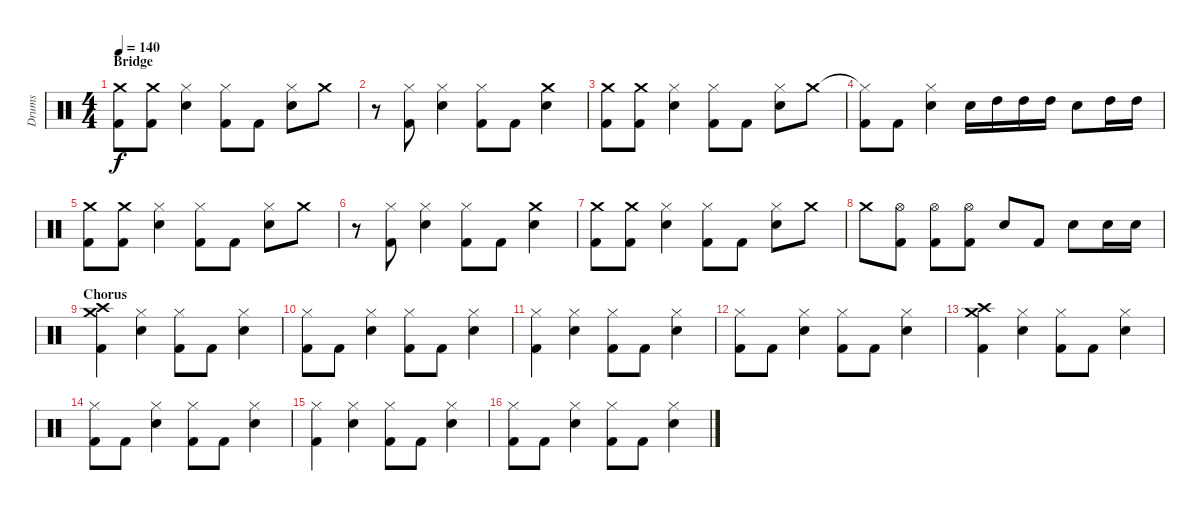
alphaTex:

\track ("Drums" "Drums") {instrument percussion}
\staff {score}
\articulation defaults
\ts (4 4)
\section ("" "Bridge")
\tempo 140
\clef neutral
\ks c
("Crash medium (hit)" "Kick (hit) 2").8{dy f} ("Crash medium (hit)" "Kick (hit) 2").8 ("Hi-Hat (closed)" "Snare (hit) 2").4 ("Hi-Hat (closed)" "Kick (hit) 2").8 "Kick (hit) 2".8 ("Hi-Hat (closed)" "Snare (hit) 2").8 "Crash medium (hit)".8 |
r.8 ("Hi-Hat (closed)" "Kick (hit) 2").8 ("Hi-Hat (closed)" "Snare (hit) 2").4 ("Hi-Hat (closed)" "Kick (hit) 2").8 "Kick (hit) 2".8 ("Crash medium (hit)" "Snare (hit) 2").4 |
("Crash medium (hit)" "Kick (hit) 2").8 ("Crash medium (hit)" "Kick (hit) 2").8 ("Hi-Hat (closed)" "Snare (hit) 2").4 ("Hi-Hat (closed)" "Kick (hit) 2").8 "Kick (hit) 2".8 ("Hi-Hat (closed)" "Snare (hit) 2").8 "Crash medium (hit)".8 |
("Hi-Hat (closed)"{t} "Kick (hit) 2").8 "Kick (hit) 2".8 ("Hi-Hat (closed)" "Snare (hit) 2").4 "Snare (hit) 2".16 "High Tom (hit)".16 "High Tom (hit)".16 "High Tom (hit)".16 "Snare (hit) 2".8 "High Tom (hit)".16 "High Tom (hit)".16 |
("Crash medium (hit)" "Kick (hit) 2").8 ("Crash medium (hit)" "Kick (hit) 2").8 ("Hi-Hat (closed)" "Snare (hit) 2").4 ("Hi-Hat (closed)" "Kick (hit) 2").8 "Kick (hit) 2".8 ("Hi-Hat (closed)" "Snare (hit) 2").8 "Crash medium (hit)".8 |
r.8 ("Hi-Hat (closed)" "Kick (hit) 2").8 ("Hi-Hat (closed)" "Snare (hit) 2").4 ("Hi-Hat (closed)" "Kick (hit) 2").8 "Kick (hit) 2".8 ("Crash medium (hit)" "Snare (hit) 2").4 |
("Crash medium (hit)" "Kick (hit) 2").8 ("Crash medium (hit)" "Kick (hit) 2").8 ("Hi-Hat (closed)" "Snare (hit) 2").4 ("Hi-Hat (closed)" "Kick (hit) 2").8 "Kick (hit) 2".8 ("Hi-Hat (closed)" "Snare (hit) 2").8 "Crash medium (hit)".8 |
"Crash medium (hit)".8 ("Hi-Hat (open)" "Kick (hit) 2").8 ("Hi-Hat (open)" "Kick (hit) 2").8 ("Hi-Hat (open)" "Kick (hit) 2").8 "Snare (hit) 2".8 "Kick (hit) 2".8 "Snare (hit) 2".8 "Snare (hit) 2".16 "Snare (hit) 2".16 |
\section ("" "Chorus")
("Crash medium (hit)" "Crash high (hit)" "Kick (hit) 2").4 ("Hi-Hat (closed)" "Snare (hit) 2").4 ("Hi-Hat (closed)" "Kick (hit) 2").8 "Kick (hit) 2".8 ("Hi-Hat (closed)" "Snare (hit) 2").4 |
("Hi-Hat (closed)" "Kick (hit) 2").8 "Kick (hit) 2".8 ("Hi-Hat (closed)" "Snare (hit) 2").4 ("Hi-Hat (closed)" "Kick (hit) 2").8 "Kick (hit) 2".8 ("Hi-Hat (closed)" "Snare (hit) 2").4 |
("Hi-Hat (closed)" "Kick (hit) 2").4 ("Hi-Hat (closed)" "Snare (hit) 2").4 ("Hi-Hat (closed)" "Kick (hit) 2").8 "Kick (hit) 2".8 ("Hi-Hat (closed)" "Snare (hit) 2").4 |
("Hi-Hat (closed)" "Kick (hit) 2").8 "Kick (hit) 2".8 ("Hi-Hat (closed)" "Snare (hit) 2").4 ("Hi-Hat (closed)" "Kick (hit) 2").8 "Kick (hit) 2".8 ("Hi-Hat (closed)" "Snare (hit) 2").4 |
("Crash medium (hit)" "Crash high (hit)" "Kick (hit) 2").4 ("Hi-Hat (closed)" "Snare (hit) 2").4 ("Hi-Hat (closed)" "Kick (hit) 2").8 "Kick (hit) 2".8 ("Hi-Hat (closed)" "Snare (hit) 2").4 |
("Hi-Hat (closed)" "Kick (hit) 2").8 "Kick (hit) 2".8 ("Hi-Hat (closed)" "Snare (hit) 2").4 ("Hi-Hat (closed)" "Kick (hit) 2").8 "Kick (hit) 2".8 ("Hi-Hat (closed)" "Snare (hit) 2").4 |
("Hi-Hat (closed)" "Kick (hit) 2").4 ("Hi-Hat (closed)" "Snare (hit) 2").4 ("Hi-Hat (closed)" "Kick (hit) 2").8 "Kick (hit) 2".8 ("Hi-Hat (closed)" "Snare (hit) 2").4 |
("Hi-Hat (closed)" "Kick (hit) 2").8 "Kick (hit) 2".8 ("Hi-Hat (closed)" "Snare (hit) 2").4 ("Hi-Hat (closed)" "Kick (hit) 2").8 "Kick (hit) 2".8 ("Hi-Hat (closed)" "Snare (hit) 2").4
